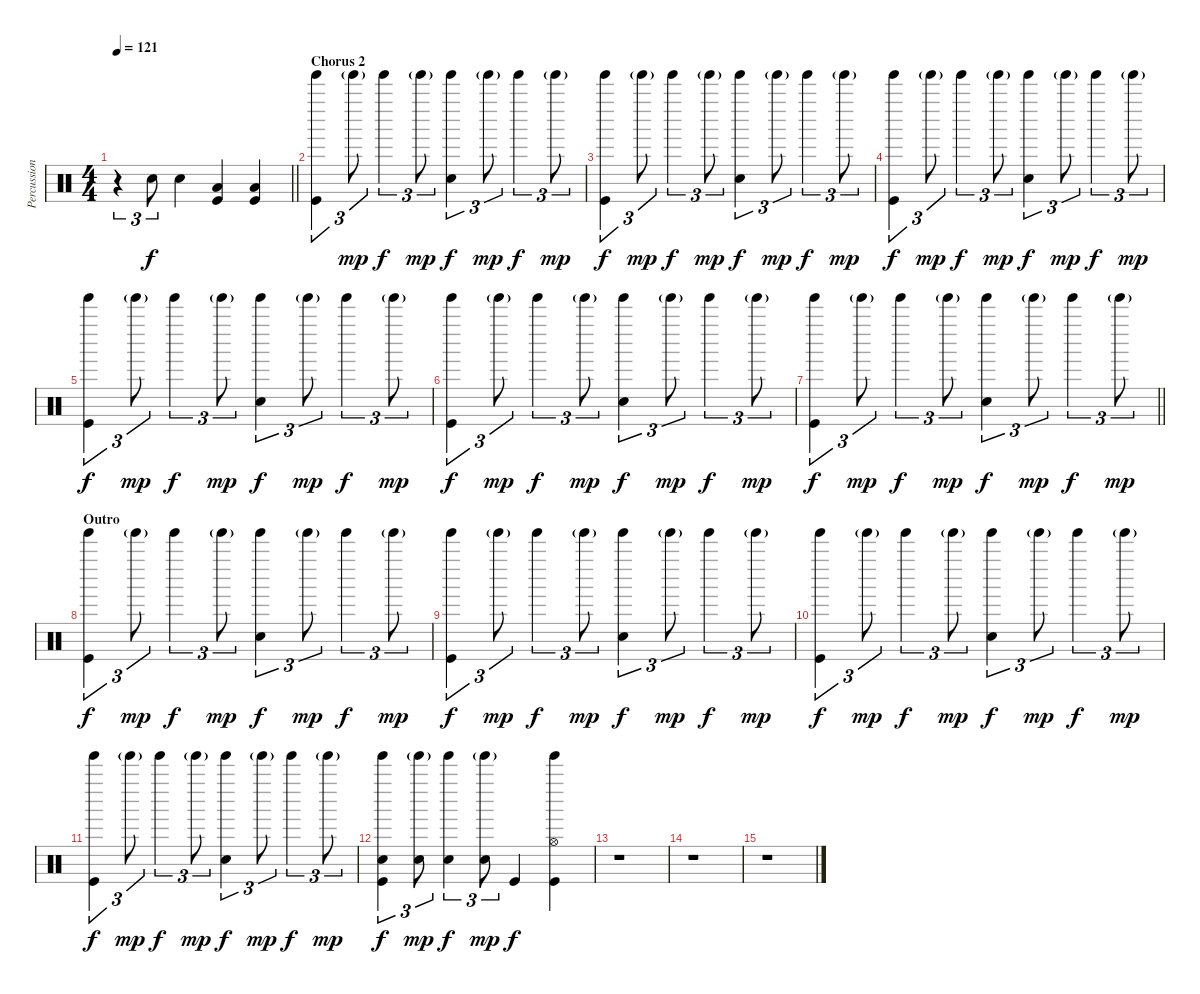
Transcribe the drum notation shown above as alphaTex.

\track ("Percussion" "Percussion") {instrument percussion}
\staff
\articulation defaults
\ts (4 4)
\tempo 121
\clef neutral
\barLineRight lightlight
\ks c
r.4{tu (3 2) dy f} "Electric Snare (hit)".8{tu (3 2)} "Electric Snare (hit)".4 ("Low Tom (hit)" "Kick (hit)").4 ("Low Floor Tom (hit)" "Kick (hit)").4 |
\section ("" "Chorus 2")
("Tinkle Bell (hit)" "Kick (hit)").4{tu (3 2)} "Tinkle Bell (hit)"{g}.8{tu (3 2) dy mp} "Tinkle Bell (hit)".4{tu (3 2) dy f} "Tinkle Bell (hit)"{g}.8{tu (3 2) dy mp} ("Electric Snare (hit)" "Tinkle Bell (hit)").4{tu (3 2) dy f} "Tinkle Bell (hit)"{g}.8{tu (3 2) dy mp} "Tinkle Bell (hit)".4{tu (3 2) dy f} "Tinkle Bell (hit)"{g}.8{tu (3 2) dy mp} |
("Tinkle Bell (hit)" "Kick (hit)").4{tu (3 2) dy f} "Tinkle Bell (hit)"{g}.8{tu (3 2) dy mp} "Tinkle Bell (hit)".4{tu (3 2) dy f} "Tinkle Bell (hit)"{g}.8{tu (3 2) dy mp} ("Electric Snare (hit)" "Tinkle Bell (hit)").4{tu (3 2) dy f} "Tinkle Bell (hit)"{g}.8{tu (3 2) dy mp} "Tinkle Bell (hit)".4{tu (3 2) dy f} "Tinkle Bell (hit)"{g}.8{tu (3 2) dy mp} |
("Tinkle Bell (hit)" "Kick (hit)").4{tu (3 2) dy f} "Tinkle Bell (hit)"{g}.8{tu (3 2) dy mp} "Tinkle Bell (hit)".4{tu (3 2) dy f} "Tinkle Bell (hit)"{g}.8{tu (3 2) dy mp} ("Electric Snare (hit)" "Tinkle Bell (hit)").4{tu (3 2) dy f} "Tinkle Bell (hit)"{g}.8{tu (3 2) dy mp} "Tinkle Bell (hit)".4{tu (3 2) dy f} "Tinkle Bell (hit)"{g}.8{tu (3 2) dy mp} |
("Tinkle Bell (hit)" "Kick (hit)").4{tu (3 2) dy f} "Tinkle Bell (hit)"{g}.8{tu (3 2) dy mp} "Tinkle Bell (hit)".4{tu (3 2) dy f} "Tinkle Bell (hit)"{g}.8{tu (3 2) dy mp} ("Electric Snare (hit)" "Tinkle Bell (hit)").4{tu (3 2) dy f} "Tinkle Bell (hit)"{g}.8{tu (3 2) dy mp} "Tinkle Bell (hit)".4{tu (3 2) dy f} "Tinkle Bell (hit)"{g}.8{tu (3 2) dy mp} |
("Tinkle Bell (hit)" "Kick (hit)").4{tu (3 2) dy f} "Tinkle Bell (hit)"{g}.8{tu (3 2) dy mp} "Tinkle Bell (hit)".4{tu (3 2) dy f} "Tinkle Bell (hit)"{g}.8{tu (3 2) dy mp} ("Electric Snare (hit)" "Tinkle Bell (hit)").4{tu (3 2) dy f} "Tinkle Bell (hit)"{g}.8{tu (3 2) dy mp} "Tinkle Bell (hit)".4{tu (3 2) dy f} "Tinkle Bell (hit)"{g}.8{tu (3 2) dy mp} |
\barLineRight lightlight
("Tinkle Bell (hit)" "Kick (hit)").4{tu (3 2) dy f} "Tinkle Bell (hit)"{g}.8{tu (3 2) dy mp} "Tinkle Bell (hit)".4{tu (3 2) dy f} "Tinkle Bell (hit)"{g}.8{tu (3 2) dy mp} ("Electric Snare (hit)" "Tinkle Bell (hit)").4{tu (3 2) dy f} "Tinkle Bell (hit)"{g}.8{tu (3 2) dy mp} "Tinkle Bell (hit)".4{tu (3 2) dy f} "Tinkle Bell (hit)"{g}.8{tu (3 2) dy mp} |
\section ("" "Outro")
("Tinkle Bell (hit)" "Kick (hit)").4{tu (3 2) dy f} "Tinkle Bell (hit)"{g}.8{tu (3 2) dy mp} "Tinkle Bell (hit)".4{tu (3 2) dy f} "Tinkle Bell (hit)"{g}.8{tu (3 2) dy mp} ("Electric Snare (hit)" "Tinkle Bell (hit)").4{tu (3 2) dy f} "Tinkle Bell (hit)"{g}.8{tu (3 2) dy mp} "Tinkle Bell (hit)".4{tu (3 2) dy f} "Tinkle Bell (hit)"{g}.8{tu (3 2) dy mp} |
("Tinkle Bell (hit)" "Kick (hit)").4{tu (3 2) dy f} "Tinkle Bell (hit)"{g}.8{tu (3 2) dy mp} "Tinkle Bell (hit)".4{tu (3 2) dy f} "Tinkle Bell (hit)"{g}.8{tu (3 2) dy mp} ("Electric Snare (hit)" "Tinkle Bell (hit)").4{tu (3 2) dy f} "Tinkle Bell (hit)"{g}.8{tu (3 2) dy mp} "Tinkle Bell (hit)".4{tu (3 2) dy f} "Tinkle Bell (hit)"{g}.8{tu (3 2) dy mp} |
("Tinkle Bell (hit)" "Kick (hit)").4{tu (3 2) dy f} "Tinkle Bell (hit)"{g}.8{tu (3 2) dy mp} "Tinkle Bell (hit)".4{tu (3 2) dy f} "Tinkle Bell (hit)"{g}.8{tu (3 2) dy mp} ("Electric Snare (hit)" "Tinkle Bell (hit)").4{tu (3 2) dy f} "Tinkle Bell (hit)"{g}.8{tu (3 2) dy mp} "Tinkle Bell (hit)".4{tu (3 2) dy f} "Tinkle Bell (hit)"{g}.8{tu (3 2) dy mp} |
("Tinkle Bell (hit)" "Kick (hit)").4{tu (3 2) dy f} "Tinkle Bell (hit)"{g}.8{tu (3 2) dy mp} "Tinkle Bell (hit)".4{tu (3 2) dy f} "Tinkle Bell (hit)"{g}.8{tu (3 2) dy mp} ("Electric Snare (hit)" "Tinkle Bell (hit)").4{tu (3 2) dy f} "Tinkle Bell (hit)"{g}.8{tu (3 2) dy mp} "Tinkle Bell (hit)".4{tu (3 2) dy f} "Tinkle Bell (hit)"{g}.8{tu (3 2) dy mp} |
("Electric Snare (hit)" "Tinkle Bell (hit)" "Kick (hit)").4{tu (3 2) dy f} ("Electric Snare (hit)" "Tinkle Bell (hit)"{g}).8{tu (3 2) dy mp} ("Electric Snare (hit)" "Tinkle Bell (hit)").4{tu (3 2) dy f} ("Electric Snare (hit)" "Tinkle Bell (hit)"{g}).8{tu (3 2) dy mp} "Kick (hit)".4{dy f} ("Hi-Hat (open)" "Tinkle Bell (hit)" "Kick (hit)").4 |
r.1 |
r.1 |
r.1
